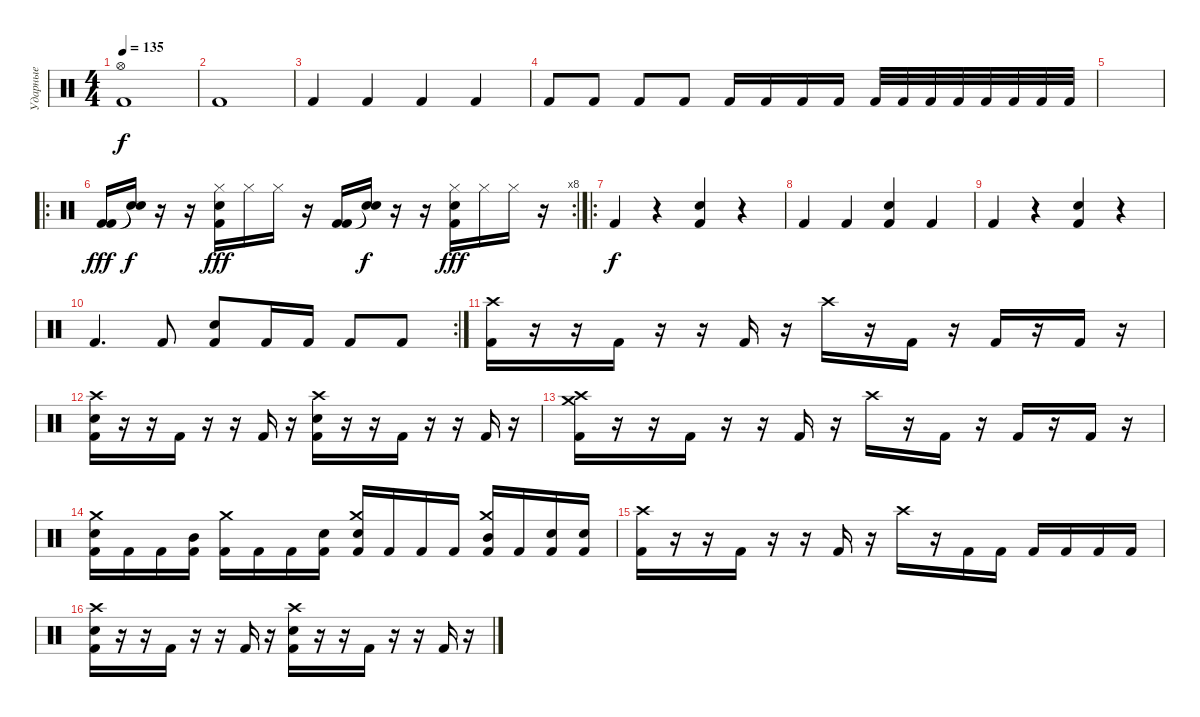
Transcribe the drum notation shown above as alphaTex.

\track ("Ударные" "Ударные") {instrument percussion}
\staff {score}
\articulation defaults
\ts (4 4)
\tempo 135
\clef neutral
\ks c
("Hi-Hat (open)" "Kick (hit) 2").1{dy f} |
"Kick (hit) 2".1 |
"Kick (hit) 2".4 "Kick (hit) 2".4 "Kick (hit) 2".4 "Kick (hit) 2".4 |
"Kick (hit) 2".8 "Kick (hit) 2".8 "Kick (hit) 2".8 "Kick (hit) 2".8 "Kick (hit) 2".16 "Kick (hit) 2".16 "Kick (hit) 2".16 "Kick (hit) 2".16 "Kick (hit) 2".32 "Kick (hit) 2".32 "Kick (hit) 2".32 "Kick (hit) 2".32 "Kick (hit) 2".32 "Kick (hit) 2".32 "Kick (hit) 2".32 "Kick (hit) 2".32 |
|
\ro
\rc 8
("Kick (hit) 2" "Kick (hit) 2").16{dy fff} ("Snare (hit)"{t} "Snare (hit)"{t}).16{dy f} r.16 r.16 ("Hi-Hat (closed)" "Snare (hit) 2" "Kick (hit) 2").16{dy fff} "Hi-Hat (closed)".16 "Hi-Hat (closed)".16 r.16 ("Kick (hit) 2" "Kick (hit) 2").16 ("Snare (hit)"{t} "Snare (hit)"{t}).16{dy f} r.16 r.16 ("Hi-Hat (closed)" "Snare (hit) 2" "Kick (hit) 2").16{dy fff} "Hi-Hat (closed)".16 "Hi-Hat (closed)".16 r.16 |
\ro "Kick (hit) 2".4{dy f}
r.4 ("Snare (hit) 2" "Kick (hit) 2").4 r.4 |
"Kick (hit) 2".4 "Kick (hit) 2".4 ("Snare (hit) 2" "Kick (hit) 2").4 "Kick (hit) 2".4 |
"Kick (hit) 2".4 r.4 ("Snare (hit) 2" "Kick (hit) 2").4 r.4 |
\rc 2 "Kick (hit) 2".4{d} "Kick (hit) 2".8
("Snare (hit) 2" "Kick (hit) 2").8 "Kick (hit) 2".16 "Kick (hit) 2".16 "Kick (hit) 2".8 "Kick (hit) 2".8 |
("Crash high (hit)" "Kick (hit) 2").16 r.16 r.16 "Kick (hit) 2".16 r.16 r.16 "Kick (hit) 2".16 r.16 "Crash high (hit)".16 r.16 "Kick (hit) 2".16 r.16 "Kick (hit) 2".16 r.16 "Kick (hit) 2".16 r.16 |
("Crash high (hit)" "Snare (hit) 2" "Kick (hit) 2").16 r.16 r.16 "Kick (hit) 2".16 r.16 r.16 "Kick (hit) 2".16 r.16 ("Crash high (hit)" "Snare (hit) 2" "Kick (hit) 2").16 r.16 r.16 "Kick (hit) 2".16 r.16 r.16 "Kick (hit) 2".16 r.16 |
("Crash high (hit)" "Crash medium (hit)" "Kick (hit) 2").16 r.16 r.16 "Kick (hit) 2".16 r.16 r.16 "Kick (hit) 2".16 r.16 "Crash high (hit)".16 r.16 "Kick (hit) 2".16 r.16 "Kick (hit) 2".16 r.16 "Kick (hit) 2".16 r.16 |
("Crash medium (hit)" "Snare (hit) 2" "Kick (hit) 2").16 "Kick (hit) 2".16 "Kick (hit) 2".16 ("Mid Tom (hit)" "Kick (hit) 2").16 ("Crash medium (hit)" "Kick (hit) 2").16 "Kick (hit) 2".16 "Kick (hit) 2".16 ("Electric Snare (hit)" "Kick (hit) 2").16 ("Crash medium (hit)" "Electric Snare (hit)" "Kick (hit) 2").16 "Kick (hit) 2".16 "Kick (hit) 2".16 "Kick (hit) 2".16 ("Crash medium (hit)" "Mid Tom (hit)" "Kick (hit) 2").16 "Kick (hit) 2".16 ("Electric Snare (hit)" "Kick (hit) 2").16 ("Electric Snare (hit)" "Kick (hit) 2").16 |
("Crash high (hit)" "Kick (hit) 2").16 r.16 r.16 "Kick (hit) 2".16 r.16 r.16 "Kick (hit) 2".16 r.16 "Crash high (hit)".16 r.16 "Kick (hit) 2".16 "Kick (hit) 2".16 "Kick (hit) 2".16 "Kick (hit) 2".16 "Kick (hit) 2".16 "Kick (hit) 2".16 |
("Crash high (hit)" "Snare (hit) 2" "Kick (hit) 2").16 r.16 r.16 "Kick (hit) 2".16 r.16 r.16 "Kick (hit) 2".16 r.16 ("Crash high (hit)" "Snare (hit) 2" "Kick (hit) 2").16 r.16 r.16 "Kick (hit) 2".16 r.16 r.16 "Kick (hit) 2".16 r.16
